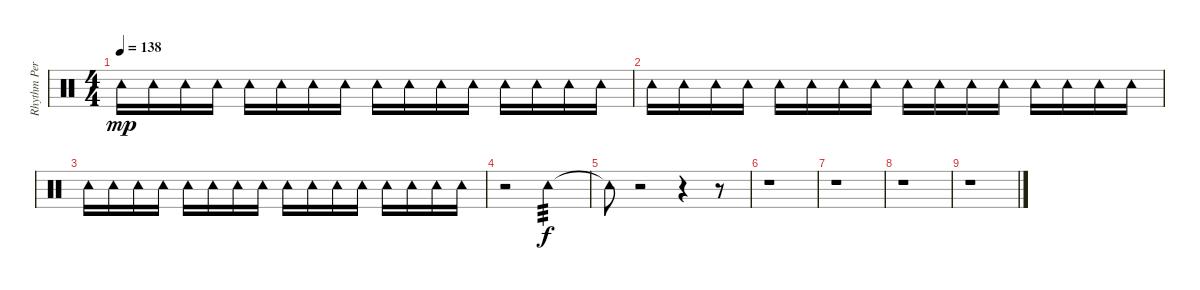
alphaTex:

\track ("Rhythm Percussion" "Rhythm Per") {instrument percussion}
\staff {score}
\articulation defaults
\ts (4 4)
\tempo 138
\clef neutral
\ks c "Tambourine (hit)".16{dy mp} "Tambourine (hit)".16 "Tambourine (hit)".16 "Tambourine (hit)".16 "Tambourine (hit)".16 "Tambourine (hit)".16 "Tambourine (hit)".16 "Tambourine (hit)".16 "Tambourine (hit)".16 "Tambourine (hit)".16 "Tambourine (hit)".16 "Tambourine (hit)".16 "Tambourine (hit)".16 "Tambourine (hit)".16 "Tambourine (hit)".16 "Tambourine (hit)".16
|
"Tambourine (hit)".16 "Tambourine (hit)".16 "Tambourine (hit)".16 "Tambourine (hit)".16 "Tambourine (hit)".16 "Tambourine (hit)".16 "Tambourine (hit)".16 "Tambourine (hit)".16 "Tambourine (hit)".16 "Tambourine (hit)".16 "Tambourine (hit)".16 "Tambourine (hit)".16 "Tambourine (hit)".16 "Tambourine (hit)".16 "Tambourine (hit)".16 "Tambourine (hit)".16 |
"Tambourine (hit)".16 "Tambourine (hit)".16 "Tambourine (hit)".16 "Tambourine (hit)".16 "Tambourine (hit)".16 "Tambourine (hit)".16 "Tambourine (hit)".16 "Tambourine (hit)".16 "Tambourine (hit)".16 "Tambourine (hit)".16 "Tambourine (hit)".16 "Tambourine (hit)".16 "Tambourine (hit)".16 "Tambourine (hit)".16 "Tambourine (hit)".16 "Tambourine (hit)".16 |
r.2 "Tambourine (hit)".2{tp 3 dy f} |
"Tambourine (hit)"{t}.8 r.2 r.4 r.8 |
r.1 |
r.1 |
r.1 |
r.1
